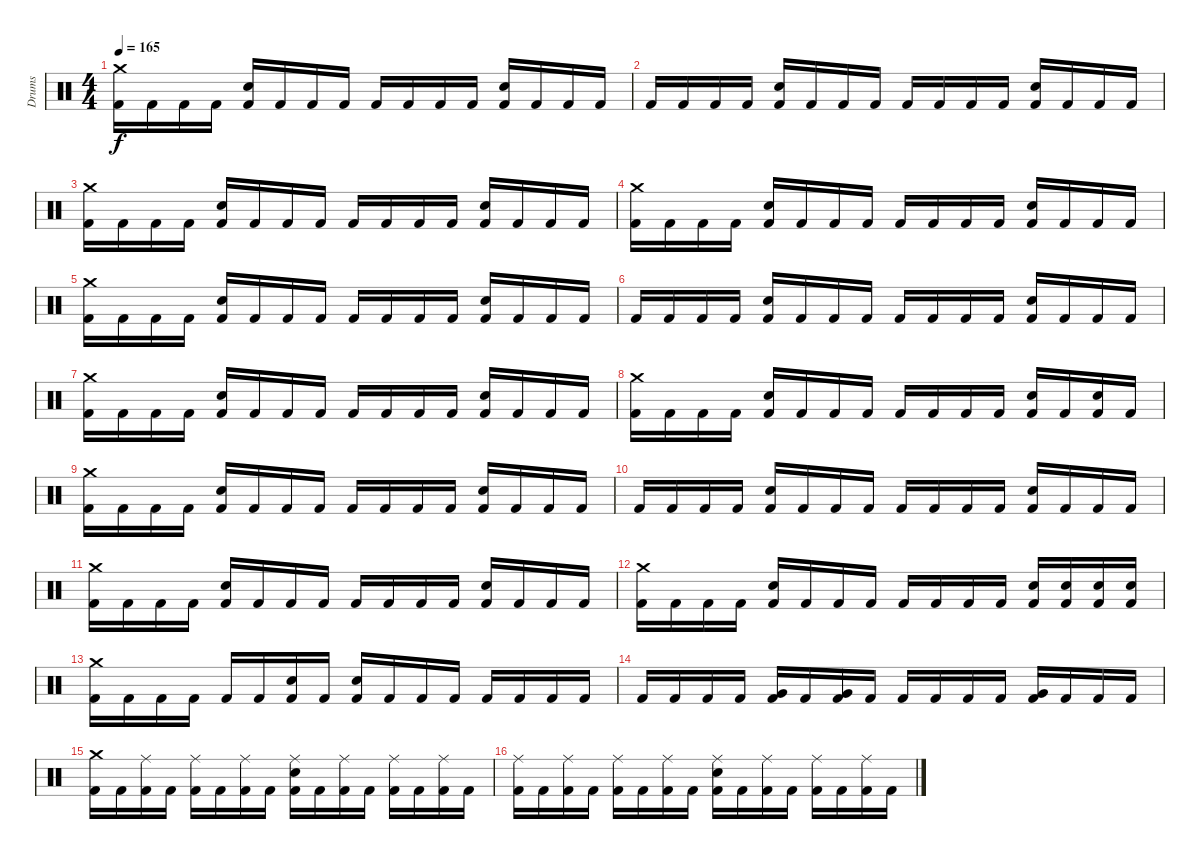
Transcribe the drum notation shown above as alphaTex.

\track ("Drums" "Drums") {instrument percussion}
\staff {score}
\articulation defaults
\ts (4 4)
\tempo 165
\clef neutral
\ks c
("Crash medium (hit)" "Kick (hit) 2").16{dy f} "Kick (hit) 2".16 "Kick (hit) 2".16 "Kick (hit) 2".16 ("Snare (hit) 2" "Kick (hit) 2").16 "Kick (hit) 2".16 "Kick (hit) 2".16 "Kick (hit) 2".16 "Kick (hit) 2".16 "Kick (hit) 2".16 "Kick (hit) 2".16 "Kick (hit) 2".16 ("Snare (hit) 2" "Kick (hit) 2").16 "Kick (hit) 2".16 "Kick (hit) 2".16 "Kick (hit) 2".16 |
"Kick (hit) 2".16 "Kick (hit) 2".16 "Kick (hit) 2".16 "Kick (hit) 2".16 ("Snare (hit) 2" "Kick (hit) 2").16 "Kick (hit) 2".16 "Kick (hit) 2".16 "Kick (hit) 2".16 "Kick (hit) 2".16 "Kick (hit) 2".16 "Kick (hit) 2".16 "Kick (hit) 2".16 ("Snare (hit) 2" "Kick (hit) 2").16 "Kick (hit) 2".16 "Kick (hit) 2".16 "Kick (hit) 2".16 |
("Crash medium (hit)" "Kick (hit) 2").16 "Kick (hit) 2".16 "Kick (hit) 2".16 "Kick (hit) 2".16 ("Snare (hit) 2" "Kick (hit) 2").16 "Kick (hit) 2".16 "Kick (hit) 2".16 "Kick (hit) 2".16 "Kick (hit) 2".16 "Kick (hit) 2".16 "Kick (hit) 2".16 "Kick (hit) 2".16 ("Snare (hit) 2" "Kick (hit) 2").16 "Kick (hit) 2".16 "Kick (hit) 2".16 "Kick (hit) 2".16 |
("Crash medium (hit)" "Kick (hit) 2").16 "Kick (hit) 2".16 "Kick (hit) 2".16 "Kick (hit) 2".16 ("Snare (hit) 2" "Kick (hit) 2").16 "Kick (hit) 2".16 "Kick (hit) 2".16 "Kick (hit) 2".16 "Kick (hit) 2".16 "Kick (hit) 2".16 "Kick (hit) 2".16 "Kick (hit) 2".16 ("Snare (hit) 2" "Kick (hit) 2").16 "Kick (hit) 2".16 "Kick (hit) 2".16 "Kick (hit) 2".16 |
("Crash medium (hit)" "Kick (hit) 2").16 "Kick (hit) 2".16 "Kick (hit) 2".16 "Kick (hit) 2".16 ("Snare (hit) 2" "Kick (hit) 2").16 "Kick (hit) 2".16 "Kick (hit) 2".16 "Kick (hit) 2".16 "Kick (hit) 2".16 "Kick (hit) 2".16 "Kick (hit) 2".16 "Kick (hit) 2".16 ("Snare (hit) 2" "Kick (hit) 2").16 "Kick (hit) 2".16 "Kick (hit) 2".16 "Kick (hit) 2".16 |
"Kick (hit) 2".16 "Kick (hit) 2".16 "Kick (hit) 2".16 "Kick (hit) 2".16 ("Snare (hit) 2" "Kick (hit) 2").16 "Kick (hit) 2".16 "Kick (hit) 2".16 "Kick (hit) 2".16 "Kick (hit) 2".16 "Kick (hit) 2".16 "Kick (hit) 2".16 "Kick (hit) 2".16 ("Snare (hit) 2" "Kick (hit) 2").16 "Kick (hit) 2".16 "Kick (hit) 2".16 "Kick (hit) 2".16 |
("Crash medium (hit)" "Kick (hit) 2").16 "Kick (hit) 2".16 "Kick (hit) 2".16 "Kick (hit) 2".16 ("Snare (hit) 2" "Kick (hit) 2").16 "Kick (hit) 2".16 "Kick (hit) 2".16 "Kick (hit) 2".16 "Kick (hit) 2".16 "Kick (hit) 2".16 "Kick (hit) 2".16 "Kick (hit) 2".16 ("Snare (hit) 2" "Kick (hit) 2").16 "Kick (hit) 2".16 "Kick (hit) 2".16 "Kick (hit) 2".16 |
("Crash medium (hit)" "Kick (hit) 2").16 "Kick (hit) 2".16 "Kick (hit) 2".16 "Kick (hit) 2".16 ("Snare (hit) 2" "Kick (hit) 2").16 "Kick (hit) 2".16 "Kick (hit) 2".16 "Kick (hit) 2".16 "Kick (hit) 2".16 "Kick (hit) 2".16 "Kick (hit) 2".16 "Kick (hit) 2".16 ("Snare (hit) 2" "Kick (hit) 2").16 "Kick (hit) 2".16 ("Snare (hit) 2" "Kick (hit) 2").16 "Kick (hit) 2".16 |
("Crash medium (hit)" "Kick (hit) 2").16 "Kick (hit) 2".16 "Kick (hit) 2".16 "Kick (hit) 2".16 ("Snare (hit) 2" "Kick (hit) 2").16 "Kick (hit) 2".16 "Kick (hit) 2".16 "Kick (hit) 2".16 "Kick (hit) 2".16 "Kick (hit) 2".16 "Kick (hit) 2".16 "Kick (hit) 2".16 ("Snare (hit) 2" "Kick (hit) 2").16 "Kick (hit) 2".16 "Kick (hit) 2".16 "Kick (hit) 2".16 |
"Kick (hit) 2".16 "Kick (hit) 2".16 "Kick (hit) 2".16 "Kick (hit) 2".16 ("Snare (hit) 2" "Kick (hit) 2").16 "Kick (hit) 2".16 "Kick (hit) 2".16 "Kick (hit) 2".16 "Kick (hit) 2".16 "Kick (hit) 2".16 "Kick (hit) 2".16 "Kick (hit) 2".16 ("Snare (hit) 2" "Kick (hit) 2").16 "Kick (hit) 2".16 "Kick (hit) 2".16 "Kick (hit) 2".16 |
("Crash medium (hit)" "Kick (hit) 2").16 "Kick (hit) 2".16 "Kick (hit) 2".16 "Kick (hit) 2".16 ("Snare (hit) 2" "Kick (hit) 2").16 "Kick (hit) 2".16 "Kick (hit) 2".16 "Kick (hit) 2".16 "Kick (hit) 2".16 "Kick (hit) 2".16 "Kick (hit) 2".16 "Kick (hit) 2".16 ("Snare (hit) 2" "Kick (hit) 2").16 "Kick (hit) 2".16 "Kick (hit) 2".16 "Kick (hit) 2".16 |
("Crash medium (hit)" "Kick (hit) 2").16 "Kick (hit) 2".16 "Kick (hit) 2".16 "Kick (hit) 2".16 ("Snare (hit) 2" "Kick (hit) 2").16 "Kick (hit) 2".16 "Kick (hit) 2".16 "Kick (hit) 2".16 "Kick (hit) 2".16 "Kick (hit) 2".16 "Kick (hit) 2".16 "Kick (hit) 2".16 ("Snare (hit) 2" "Kick (hit) 2").16 ("Snare (hit) 2" "Kick (hit) 2").16 ("Snare (hit) 2" "Kick (hit) 2").16 ("Snare (hit) 2" "Kick (hit) 2").16 |
("Crash medium (hit)" "Kick (hit) 2").16 "Kick (hit) 2".16 "Kick (hit) 2".16 "Kick (hit) 2".16 "Kick (hit) 2".16 "Kick (hit) 2".16 ("Snare (hit) 2" "Kick (hit) 2").16 "Kick (hit) 2".16 ("Snare (hit) 2" "Kick (hit) 2").16 "Kick (hit) 2".16 "Kick (hit) 2".16 "Kick (hit) 2".16 "Kick (hit) 2".16 "Kick (hit) 2".16 "Kick (hit) 2".16 "Kick (hit) 2".16 |
"Kick (hit) 2".16 "Kick (hit) 2".16 "Kick (hit) 2".16 "Kick (hit) 2".16 ("Very Low Tom (hit)" "Kick (hit) 2").16 "Kick (hit) 2".16 ("Very Low Tom (hit)" "Kick (hit) 2").16 "Kick (hit) 2".16 "Kick (hit) 2".16 "Kick (hit) 2".16 "Kick (hit) 2".16 "Kick (hit) 2".16 ("Very Low Tom (hit)" "Kick (hit) 2").16 "Kick (hit) 2".16 "Kick (hit) 2".16 "Kick (hit) 2".16 |
("Crash medium (hit)" "Kick (hit) 2").16 "Kick (hit) 2".16 ("Ride (middle)" "Kick (hit) 2").16 "Kick (hit) 2".16 ("Ride (middle)" "Kick (hit) 2").16 "Kick (hit) 2".16 ("Ride (middle)" "Kick (hit) 2").16 "Kick (hit) 2".16 ("Ride (middle)" "Snare (hit) 2" "Kick (hit) 2").16 "Kick (hit) 2".16 ("Ride (middle)" "Kick (hit) 2").16 "Kick (hit) 2".16 ("Ride (middle)" "Kick (hit) 2").16 "Kick (hit) 2".16 ("Ride (middle)" "Kick (hit) 2").16 "Kick (hit) 2".16 |
("Ride (middle)" "Kick (hit) 2").16 "Kick (hit) 2".16 ("Ride (middle)" "Kick (hit) 2").16 "Kick (hit) 2".16 ("Ride (middle)" "Kick (hit) 2").16 "Kick (hit) 2".16 ("Ride (middle)" "Kick (hit) 2").16 "Kick (hit) 2".16 ("Ride (middle)" "Snare (hit) 2" "Kick (hit) 2").16 "Kick (hit) 2".16 ("Ride (middle)" "Kick (hit) 2").16 "Kick (hit) 2".16 ("Ride (middle)" "Kick (hit) 2").16 "Kick (hit) 2".16 ("Ride (middle)" "Kick (hit) 2").16 "Kick (hit) 2".16
